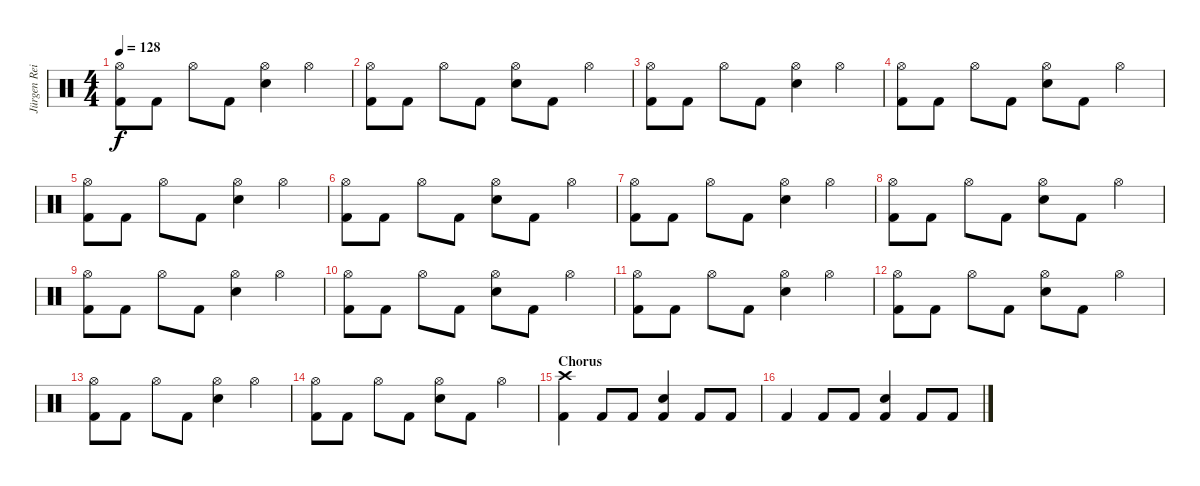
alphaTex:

\track ("Jürgen Reil [drums]" "Jürgen Rei") {instrument percussion}
\staff {score}
\articulation defaults
\ts (4 4)
\tempo 128
\clef neutral
\ks c
("Hi-Hat (open)" "Kick (hit) 2").8{dy f} "Kick (hit) 2".8 "Hi-Hat (open)".8 "Kick (hit) 2".8 ("Hi-Hat (open)" "Electric Snare (hit)").4 "Hi-Hat (open)".4 |
("Hi-Hat (open)" "Kick (hit) 2").8 "Kick (hit) 2".8 "Hi-Hat (open)".8 "Kick (hit) 2".8 ("Hi-Hat (open)" "Electric Snare (hit)").8 "Kick (hit) 2".8 "Hi-Hat (open)".4 |
("Hi-Hat (open)" "Kick (hit) 2").8 "Kick (hit) 2".8 "Hi-Hat (open)".8 "Kick (hit) 2".8 ("Hi-Hat (open)" "Electric Snare (hit)").4 "Hi-Hat (open)".4 |
("Hi-Hat (open)" "Kick (hit) 2").8 "Kick (hit) 2".8 "Hi-Hat (open)".8 "Kick (hit) 2".8 ("Hi-Hat (open)" "Electric Snare (hit)").8 "Kick (hit) 2".8 "Hi-Hat (open)".4 |
("Hi-Hat (open)" "Kick (hit) 2").8 "Kick (hit) 2".8 "Hi-Hat (open)".8 "Kick (hit) 2".8 ("Hi-Hat (open)" "Electric Snare (hit)").4 "Hi-Hat (open)".4 |
("Hi-Hat (open)" "Kick (hit) 2").8 "Kick (hit) 2".8 "Hi-Hat (open)".8 "Kick (hit) 2".8 ("Hi-Hat (open)" "Electric Snare (hit)").8 "Kick (hit) 2".8 "Hi-Hat (open)".4 |
("Hi-Hat (open)" "Kick (hit) 2").8 "Kick (hit) 2".8 "Hi-Hat (open)".8 "Kick (hit) 2".8 ("Hi-Hat (open)" "Electric Snare (hit)").4 "Hi-Hat (open)".4 |
("Hi-Hat (open)" "Kick (hit) 2").8 "Kick (hit) 2".8 "Hi-Hat (open)".8 "Kick (hit) 2".8 ("Hi-Hat (open)" "Electric Snare (hit)").8 "Kick (hit) 2".8 "Hi-Hat (open)".4 |
("Hi-Hat (open)" "Kick (hit) 2").8 "Kick (hit) 2".8 "Hi-Hat (open)".8 "Kick (hit) 2".8 ("Hi-Hat (open)" "Electric Snare (hit)").4 "Hi-Hat (open)".4 |
("Hi-Hat (open)" "Kick (hit) 2").8 "Kick (hit) 2".8 "Hi-Hat (open)".8 "Kick (hit) 2".8 ("Hi-Hat (open)" "Electric Snare (hit)").8 "Kick (hit) 2".8 "Hi-Hat (open)".4 |
("Hi-Hat (open)" "Kick (hit) 2").8 "Kick (hit) 2".8 "Hi-Hat (open)".8 "Kick (hit) 2".8 ("Hi-Hat (open)" "Electric Snare (hit)").4 "Hi-Hat (open)".4 |
("Hi-Hat (open)" "Kick (hit) 2").8 "Kick (hit) 2".8 "Hi-Hat (open)".8 "Kick (hit) 2".8 ("Hi-Hat (open)" "Electric Snare (hit)").8 "Kick (hit) 2".8 "Hi-Hat (open)".4 |
("Hi-Hat (open)" "Kick (hit) 2").8 "Kick (hit) 2".8 "Hi-Hat (open)".8 "Kick (hit) 2".8 ("Hi-Hat (open)" "Electric Snare (hit)").4 "Hi-Hat (open)".4 |
("Hi-Hat (open)" "Kick (hit) 2").8 "Kick (hit) 2".8 "Hi-Hat (open)".8 "Kick (hit) 2".8 ("Hi-Hat (open)" "Electric Snare (hit)").8 "Kick (hit) 2".8 "Hi-Hat (open)".4 |
\section ("" "Chorus ")
("Crash high (hit)" "Kick (hit) 2").4 "Kick (hit) 2".8 "Kick (hit) 2".8 ("Electric Snare (hit)" "Kick (hit) 2").4 "Kick (hit) 2".8 "Kick (hit) 2".8 |
"Kick (hit) 2".4 "Kick (hit) 2".8 "Kick (hit) 2".8 ("Electric Snare (hit)" "Kick (hit) 2").4 "Kick (hit) 2".8 "Kick (hit) 2".8
